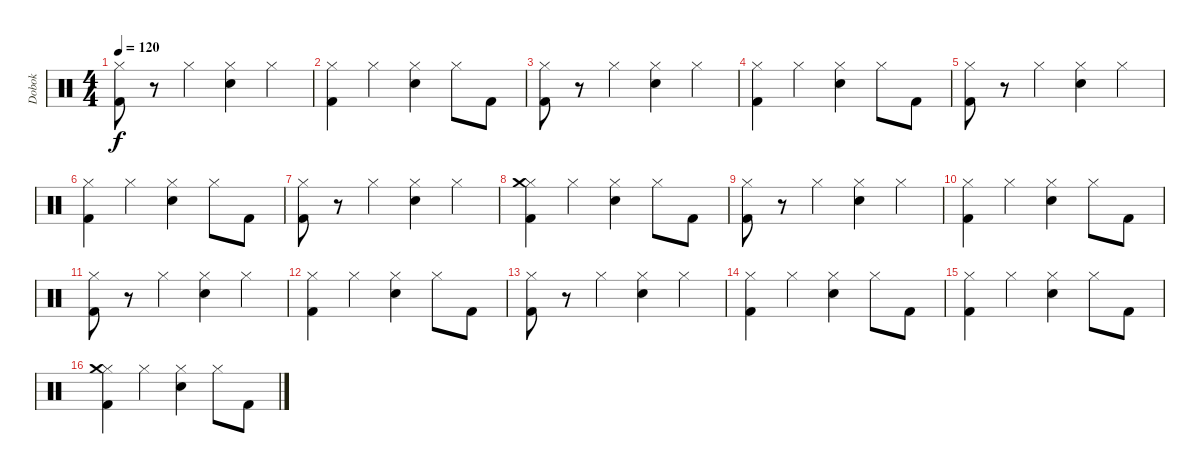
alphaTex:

\track ("Dobok" "Dobok") {instrument percussion}
\staff {score}
\articulation defaults
\ts (4 4)
\tempo 120
\clef neutral
\ks c
("Hi-Hat (closed)" "Kick (hit) 2").8{dy f} r.8 "Hi-Hat (closed)".4 ("Hi-Hat (closed)" "Snare (hit) 2").4 "Hi-Hat (closed)".4 |
("Hi-Hat (closed)" "Kick (hit) 2").4 "Hi-Hat (closed)".4 ("Hi-Hat (closed)" "Snare (hit) 2").4 "Hi-Hat (closed)".8 "Kick (hit) 2".8 |
("Hi-Hat (closed)" "Kick (hit) 2").8 r.8 "Hi-Hat (closed)".4 ("Hi-Hat (closed)" "Snare (hit) 2").4 "Hi-Hat (closed)".4 |
("Hi-Hat (closed)" "Kick (hit) 2").4 "Hi-Hat (closed)".4 ("Hi-Hat (closed)" "Snare (hit) 2").4 "Hi-Hat (closed)".8 "Kick (hit) 2".8 |
("Hi-Hat (closed)" "Kick (hit) 2").8 r.8 "Hi-Hat (closed)".4 ("Hi-Hat (closed)" "Snare (hit) 2").4 "Hi-Hat (closed)".4 |
("Hi-Hat (closed)" "Kick (hit) 2").4 "Hi-Hat (closed)".4 ("Hi-Hat (closed)" "Snare (hit) 2").4 "Hi-Hat (closed)".8 "Kick (hit) 2".8 |
("Hi-Hat (closed)" "Kick (hit) 2").8 r.8 "Hi-Hat (closed)".4 ("Hi-Hat (closed)" "Snare (hit) 2").4 "Hi-Hat (closed)".4 |
("Hi-Hat (closed)" "Kick (hit) 2" "Crash medium (hit)").4 "Hi-Hat (closed)".4 ("Hi-Hat (closed)" "Snare (hit) 2").4 "Hi-Hat (closed)".8 "Kick (hit) 2".8 |
("Hi-Hat (closed)" "Kick (hit) 2").8 r.8 "Hi-Hat (closed)".4 ("Hi-Hat (closed)" "Snare (hit) 2").4 "Hi-Hat (closed)".4 |
("Hi-Hat (closed)" "Kick (hit) 2").4 "Hi-Hat (closed)".4 ("Hi-Hat (closed)" "Snare (hit) 2").4 "Hi-Hat (closed)".8 "Kick (hit) 2".8 |
("Hi-Hat (closed)" "Kick (hit) 2").8 r.8 "Hi-Hat (closed)".4 ("Hi-Hat (closed)" "Snare (hit) 2").4 "Hi-Hat (closed)".4 |
("Hi-Hat (closed)" "Kick (hit) 2").4 "Hi-Hat (closed)".4 ("Hi-Hat (closed)" "Snare (hit) 2").4 "Hi-Hat (closed)".8 "Kick (hit) 2".8 |
("Hi-Hat (closed)" "Kick (hit) 2").8 r.8 "Hi-Hat (closed)".4 ("Hi-Hat (closed)" "Snare (hit) 2").4 "Hi-Hat (closed)".4 |
("Hi-Hat (closed)" "Kick (hit) 2").4 "Hi-Hat (closed)".4 ("Hi-Hat (closed)" "Snare (hit) 2").4 "Hi-Hat (closed)".8 "Kick (hit) 2".8 |
("Hi-Hat (closed)" "Kick (hit) 2").4 "Hi-Hat (closed)".4 ("Hi-Hat (closed)" "Snare (hit) 2").4 "Hi-Hat (closed)".8 "Kick (hit) 2".8 |
("Hi-Hat (closed)" "Kick (hit) 2" "Crash medium (hit)").4 "Hi-Hat (closed)".4 ("Hi-Hat (closed)" "Snare (hit) 2").4 "Hi-Hat (closed)".8 "Kick (hit) 2".8
